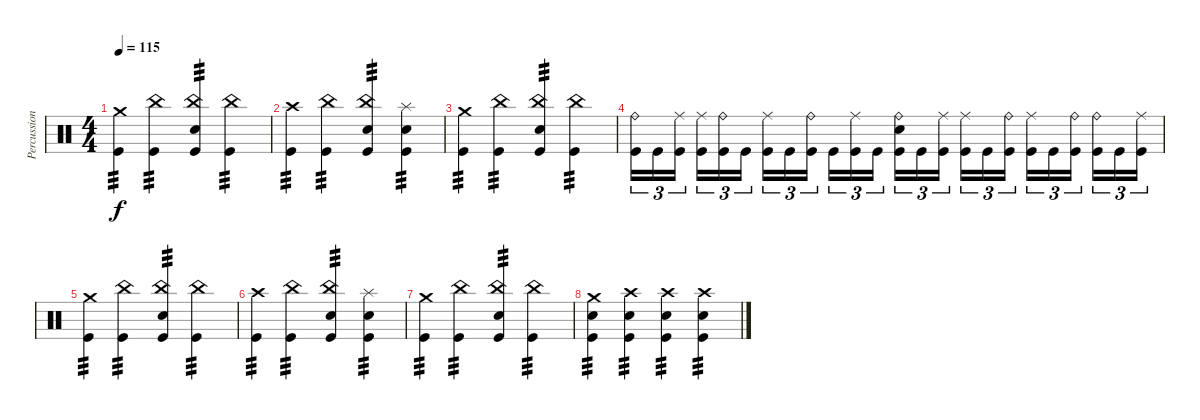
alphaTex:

\track ("Percussion" "Percussion") {instrument percussion}
\staff {score}
\articulation defaults
\ts (4 4)
\tempo 115
\clef neutral
\ks c
("Crash medium (hit)" "Kick (hit)").4{tp 3 dy f} ("China (hit)" "Kick (hit)").4{tp 3} ("China (hit)" "Electric Snare (hit)" "Kick (hit)").4{tp 3} ("China (hit)" "Kick (hit)").4{tp 3} |
("Crash high (hit)" "Kick (hit)").4{tp 3} ("China (hit)" "Kick (hit)").4{tp 3} ("China (hit)" "Electric Snare (hit)" "Kick (hit)").4{tp 3} ("Splash (hit)" "Electric Snare (hit)" "Kick (hit)").4{tp 3} |
("Crash medium (hit)" "Kick (hit)").4{tp 3} ("China (hit)" "Kick (hit)").4{tp 3} ("China (hit)" "Electric Snare (hit)" "Kick (hit)").4{tp 3} ("China (hit)" "Kick (hit)").4{tp 3} |
("Ride (bell)" "Kick (hit)").16{tu (3 2)} "Kick (hit)".16{tu (3 2)} ("Ride (middle)" "Kick (hit)").16{tu (3 2) beam splitsecondary} ("Ride (middle)" "Kick (hit)").16{tu (3 2)} ("Ride (bell)" "Kick (hit)").16{tu (3 2)} "Kick (hit)".16{tu (3 2)} ("Ride (middle)" "Kick (hit)").16{tu (3 2)} "Kick (hit)".16{tu (3 2)} ("Ride (bell)" "Kick (hit)").16{tu (3 2) beam splitsecondary} "Kick (hit)".16{tu (3 2)} ("Ride (middle)" "Kick (hit)").16{tu (3 2)} "Kick (hit)".16{tu (3 2)} ("Ride (bell)" "Electric Snare (hit)" "Kick (hit)").16{tu (3 2)} "Kick (hit)".16{tu (3 2)} ("Ride (middle)" "Kick (hit)").16{tu (3 2) beam splitsecondary} ("Ride (middle)" "Kick (hit)").16{tu (3 2)} "Kick (hit)".16{tu (3 2)} ("Ride (bell)" "Kick (hit)").16{tu (3 2)} ("Ride (middle)" "Kick (hit)").16{tu (3 2)} "Kick (hit)".16{tu (3 2)} ("Ride (bell)" "Kick (hit)").16{tu (3 2) beam splitsecondary} ("Ride (bell)" "Kick (hit)").16{tu (3 2)} "Kick (hit)".16{tu (3 2)} ("Ride (middle)" "Kick (hit)").16{tu (3 2)} |
("Crash medium (hit)" "Kick (hit)").4{tp 3} ("China (hit)" "Kick (hit)").4{tp 3} ("China (hit)" "Electric Snare (hit)" "Kick (hit)").4{tp 3} ("China (hit)" "Kick (hit)").4{tp 3} |
("Crash high (hit)" "Kick (hit)").4{tp 3} ("China (hit)" "Kick (hit)").4{tp 3} ("China (hit)" "Electric Snare (hit)" "Kick (hit)").4{tp 3} ("Splash (hit)" "Electric Snare (hit)" "Kick (hit)").4{tp 3} |
("Crash medium (hit)" "Kick (hit)").4{tp 3} ("China (hit)" "Kick (hit)").4{tp 3} ("China (hit)" "Electric Snare (hit)" "Kick (hit)").4{tp 3} ("China (hit)" "Kick (hit)").4{tp 3} |
("Crash medium (hit)" "Electric Snare (hit)" "Kick (hit)").4{tp 3} ("Crash high (hit)" "Electric Snare (hit)" "Kick (hit)").4{tp 3} ("Crash high (hit)" "Electric Snare (hit)" "Kick (hit)").4{tp 3} ("Crash high (hit)" "Electric Snare (hit)" "Kick (hit)").4{tp 3}
